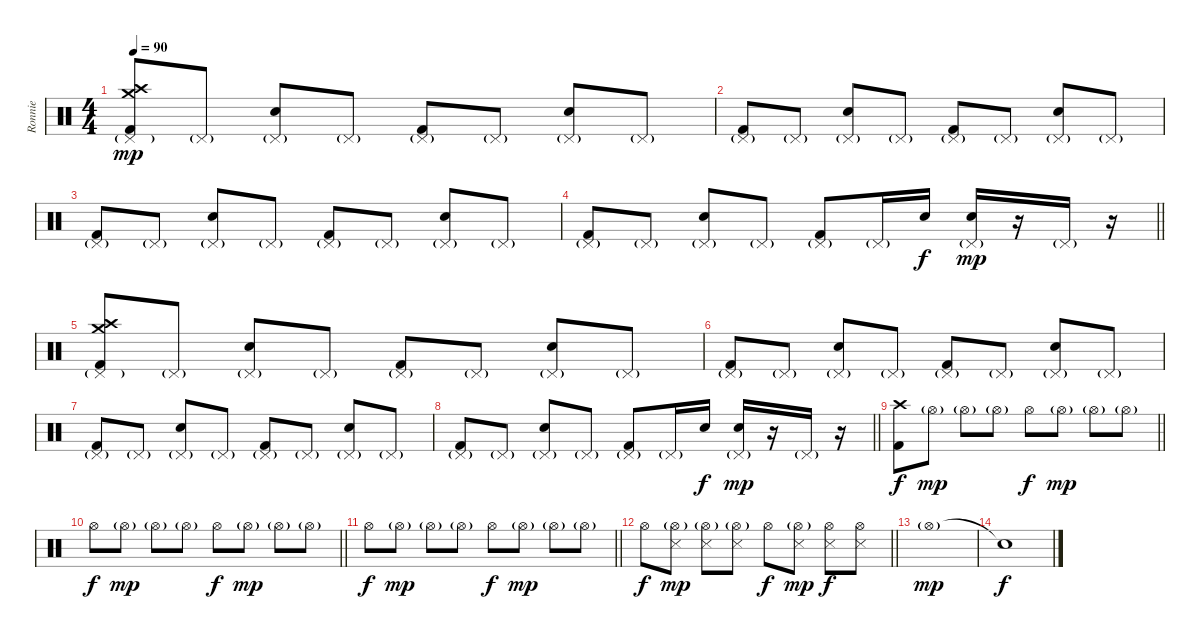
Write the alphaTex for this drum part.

\track ("Ronnie" "Ronnie") {instrument percussion}
\staff {score}
\articulation defaults
\ts (4 4)
\tempo 90
\clef neutral
\ks c
("Pedal Hi-Hat (hit)"{g} "Crash high (hit)" "Crash medium (hit)" "Kick (hit) 2").8{dy mp} "Pedal Hi-Hat (hit)"{g}.8 ("Pedal Hi-Hat (hit)"{g} "Electric Snare (hit)").8 "Pedal Hi-Hat (hit)"{g}.8 ("Pedal Hi-Hat (hit)"{g} "Kick (hit) 2").8 "Pedal Hi-Hat (hit)"{g}.8 ("Pedal Hi-Hat (hit)"{g} "Electric Snare (hit)").8 "Pedal Hi-Hat (hit)"{g}.8 |
("Pedal Hi-Hat (hit)"{g} "Kick (hit) 2").8 "Pedal Hi-Hat (hit)"{g}.8 ("Pedal Hi-Hat (hit)"{g} "Electric Snare (hit)").8 "Pedal Hi-Hat (hit)"{g}.8 ("Pedal Hi-Hat (hit)"{g} "Kick (hit) 2").8 "Pedal Hi-Hat (hit)"{g}.8 ("Pedal Hi-Hat (hit)"{g} "Electric Snare (hit)").8 "Pedal Hi-Hat (hit)"{g}.8 |
("Pedal Hi-Hat (hit)"{g} "Kick (hit) 2").8 "Pedal Hi-Hat (hit)"{g}.8 ("Pedal Hi-Hat (hit)"{g} "Electric Snare (hit)").8 "Pedal Hi-Hat (hit)"{g}.8 ("Pedal Hi-Hat (hit)"{g} "Kick (hit) 2").8 "Pedal Hi-Hat (hit)"{g}.8 ("Pedal Hi-Hat (hit)"{g} "Electric Snare (hit)").8 "Pedal Hi-Hat (hit)"{g}.8 |
\barLineRight lightlight
("Pedal Hi-Hat (hit)"{g} "Kick (hit) 2").8 "Pedal Hi-Hat (hit)"{g}.8 ("Pedal Hi-Hat (hit)"{g} "Electric Snare (hit)").8 "Pedal Hi-Hat (hit)"{g}.8 ("Pedal Hi-Hat (hit)"{g} "Kick (hit) 2").8 "Pedal Hi-Hat (hit)"{g}.16 "Electric Snare (hit)".16{dy f} ("Pedal Hi-Hat (hit)"{g} "Electric Snare (hit)").16{dy mp} r.16 "Pedal Hi-Hat (hit)"{g}.16 r.16 |
("Pedal Hi-Hat (hit)"{g} "Crash high (hit)" "Crash medium (hit)" "Kick (hit) 2").8 "Pedal Hi-Hat (hit)"{g}.8 ("Pedal Hi-Hat (hit)"{g} "Electric Snare (hit)").8 "Pedal Hi-Hat (hit)"{g}.8 ("Pedal Hi-Hat (hit)"{g} "Kick (hit) 2").8 "Pedal Hi-Hat (hit)"{g}.8 ("Pedal Hi-Hat (hit)"{g} "Electric Snare (hit)").8 "Pedal Hi-Hat (hit)"{g}.8 |
("Pedal Hi-Hat (hit)"{g} "Kick (hit) 2").8 "Pedal Hi-Hat (hit)"{g}.8 ("Pedal Hi-Hat (hit)"{g} "Electric Snare (hit)").8 "Pedal Hi-Hat (hit)"{g}.8 ("Pedal Hi-Hat (hit)"{g} "Kick (hit) 2").8 "Pedal Hi-Hat (hit)"{g}.8 ("Pedal Hi-Hat (hit)"{g} "Electric Snare (hit)").8 "Pedal Hi-Hat (hit)"{g}.8 |
("Pedal Hi-Hat (hit)"{g} "Kick (hit) 2").8 "Pedal Hi-Hat (hit)"{g}.8 ("Pedal Hi-Hat (hit)"{g} "Electric Snare (hit)").8 "Pedal Hi-Hat (hit)"{g}.8 ("Pedal Hi-Hat (hit)"{g} "Kick (hit) 2").8 "Pedal Hi-Hat (hit)"{g}.8 ("Pedal Hi-Hat (hit)"{g} "Electric Snare (hit)").8 "Pedal Hi-Hat (hit)"{g}.8 |
\barLineRight lightlight
("Pedal Hi-Hat (hit)"{g} "Kick (hit) 2").8 "Pedal Hi-Hat (hit)"{g}.8 ("Pedal Hi-Hat (hit)"{g} "Electric Snare (hit)").8 "Pedal Hi-Hat (hit)"{g}.8 ("Pedal Hi-Hat (hit)"{g} "Kick (hit) 2").8 "Pedal Hi-Hat (hit)"{g}.16 "Electric Snare (hit)".16{dy f} ("Pedal Hi-Hat (hit)"{g} "Electric Snare (hit)").16{dy mp} r.16 "Pedal Hi-Hat (hit)"{g}.16 r.16 |
\barLineRight lightlight
("Crash high (hit)" "Kick (hit) 2").8{dy f} "Hi-Hat (open)"{g}.8{dy mp} "Hi-Hat (open)"{g}.8 "Hi-Hat (open)"{g}.8 "Hi-Hat (open)".8{dy f} "Hi-Hat (open)"{g}.8{dy mp} "Hi-Hat (open)"{g}.8 "Hi-Hat (open)"{g}.8 |
\barLineRight lightlight "Hi-Hat (open)".8{dy f} "Hi-Hat (open)"{g}.8{dy mp} "Hi-Hat (open)"{g}.8 "Hi-Hat (open)"{g}.8 "Hi-Hat (open)".8{dy f} "Hi-Hat (open)"{g}.8{dy mp} "Hi-Hat (open)"{g}.8 "Hi-Hat (open)"{g}.8
|
\barLineRight lightlight "Hi-Hat (open)".8{dy f} "Hi-Hat (open)"{g}.8{dy mp} "Hi-Hat (open)"{g}.8 "Hi-Hat (open)"{g}.8 "Hi-Hat (open)".8{dy f} "Hi-Hat (open)"{g}.8{dy mp} "Hi-Hat (open)"{g}.8 "Hi-Hat (open)"{g}.8
|
\barLineRight lightlight "Hi-Hat (open)".8{dy f}
("Hi-Hat (open)"{g} "Snare (side stick) 3").8{dy mp} ("Hi-Hat (open)"{g} "Snare (side stick) 3").8 ("Hi-Hat (open)"{g} "Snare (side stick) 3").8 "Hi-Hat (open)".8{dy f} ("Hi-Hat (open)"{g} "Snare (side stick) 3").8{dy mp} ("Hi-Hat (open)" "Snare (side stick) 3").8{dy f} ("Hi-Hat (open)" "Snare (side stick) 3").8 |
"Hi-Hat (open)"{g}.1{dy mp} |
"Snare (hit)"{t}.1{dy f}
